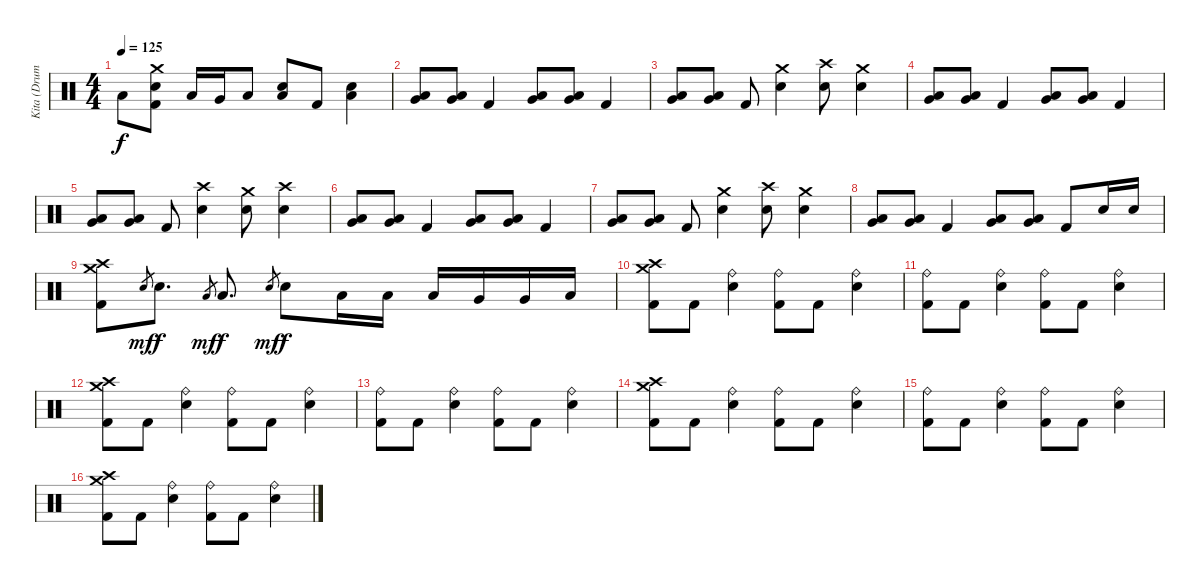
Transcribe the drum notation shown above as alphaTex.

\track ("Kita (Drums)" "Kita (Drum") {instrument percussion}
\staff {score}
\articulation defaults
\ts (4 4)
\tempo 125
\clef neutral
\ks c "Low Floor Tom (hit)".8{dy f}
("Crash medium (hit)" "Electric Snare (hit)" "Kick (hit) 2").8 "Low Floor Tom (hit)".16 "Very Low Tom (hit)".16 "Low Floor Tom (hit)".8 ("Low Floor Tom (hit)" "Electric Snare (hit)").8 "Kick (hit) 2".8 ("Low Floor Tom (hit)" "Electric Snare (hit)").4 |
("Very Low Tom (hit)" "Low Tom (hit)").8{bd 120} ("Very Low Tom (hit)" "Low Tom (hit)").8{bd 120} "Kick (hit) 2".4 ("Low Floor Tom (hit)" "Very Low Tom (hit)").8{bd 120} ("Low Floor Tom (hit)" "Very Low Tom (hit)").8{bd 120} "Kick (hit) 2".4 |
("Very Low Tom (hit)" "Low Tom (hit)").8{bd 120} ("Very Low Tom (hit)" "Low Tom (hit)").8{bd 120} "Kick (hit) 2".8 ("Crash medium (hit)" "Electric Snare (hit)").4 ("Crash high (hit)" "Electric Snare (hit)").8 ("Crash medium (hit)" "Electric Snare (hit)").4 |
("Very Low Tom (hit)" "Low Tom (hit)").8{bd 120} ("Very Low Tom (hit)" "Low Tom (hit)").8{bd 120} "Kick (hit) 2".4 ("Low Floor Tom (hit)" "Very Low Tom (hit)").8{bd 120} ("Low Floor Tom (hit)" "Very Low Tom (hit)").8{bd 120} "Kick (hit) 2".4 |
("Very Low Tom (hit)" "Low Tom (hit)").8{bd 120} ("Very Low Tom (hit)" "Low Tom (hit)").8{bd 120} "Kick (hit) 2".8 ("Crash high (hit)" "Electric Snare (hit)").4 ("Crash medium (hit)" "Electric Snare (hit)").8 ("Crash high (hit)" "Electric Snare (hit)").4 |
("Very Low Tom (hit)" "Low Tom (hit)").8{bd 120} ("Very Low Tom (hit)" "Low Tom (hit)").8{bd 120} "Kick (hit) 2".4 ("Low Floor Tom (hit)" "Very Low Tom (hit)").8{bd 120} ("Low Floor Tom (hit)" "Very Low Tom (hit)").8{bd 120} "Kick (hit) 2".4 |
("Very Low Tom (hit)" "Low Tom (hit)").8{bd 120} ("Very Low Tom (hit)" "Low Tom (hit)").8{bd 120} "Kick (hit) 2".8 ("Crash medium (hit)" "Electric Snare (hit)").4 ("Crash high (hit)" "Electric Snare (hit)").8 ("Crash medium (hit)" "Electric Snare (hit)").4 |
("Very Low Tom (hit)" "Low Tom (hit)").8{bd 120} ("Very Low Tom (hit)" "Low Tom (hit)").8{bd 120} "Kick (hit) 2".4 ("Low Floor Tom (hit)" "Very Low Tom (hit)").8{bd 120} ("Low Floor Tom (hit)" "Very Low Tom (hit)").8{bd 120} "Kick (hit) 2".8 "Electric Snare (hit)".16 "Electric Snare (hit)".16 |
("Crash medium (hit)" "Crash high (hit)" "Kick (hit) 2").8 "Electric Snare (hit)".8{gr dy mf} "Electric Snare (hit)".8{d dy f} "Low Floor Tom (hit)".8{gr dy mf} "Low Floor Tom (hit)".8{d dy f} "Electric Snare (hit)".8{gr dy mf} "Electric Snare (hit)".8{dy f} "Low Tom (hit)".16 "Low Tom (hit)".16 "Low Tom (hit)".16 "Very Low Tom (hit)".16 "Very Low Tom (hit)".16 "Low Floor Tom (hit)".16 |
("Crash medium (hit)" "Crash high (hit)" "Kick (hit) 2").8 "Kick (hit) 2".8 ("Ride (bell)" "Electric Snare (hit)").4 ("Ride (bell)" "Kick (hit) 2").8 "Kick (hit) 2".8 ("Ride (bell)" "Electric Snare (hit)").4 |
("Ride (bell)" "Kick (hit) 2").8 "Kick (hit) 2".8 ("Ride (bell)" "Electric Snare (hit)").4 ("Ride (bell)" "Kick (hit) 2").8 "Kick (hit) 2".8 ("Ride (bell)" "Electric Snare (hit)").4 |
("Crash medium (hit)" "Crash high (hit)" "Kick (hit) 2").8 "Kick (hit) 2".8 ("Ride (bell)" "Electric Snare (hit)").4 ("Ride (bell)" "Kick (hit) 2").8 "Kick (hit) 2".8 ("Ride (bell)" "Electric Snare (hit)").4 |
("Ride (bell)" "Kick (hit) 2").8 "Kick (hit) 2".8 ("Ride (bell)" "Electric Snare (hit)").4 ("Ride (bell)" "Kick (hit) 2").8 "Kick (hit) 2".8 ("Ride (bell)" "Electric Snare (hit)").4 |
("Crash medium (hit)" "Crash high (hit)" "Kick (hit) 2").8 "Kick (hit) 2".8 ("Ride (bell)" "Electric Snare (hit)").4 ("Ride (bell)" "Kick (hit) 2").8 "Kick (hit) 2".8 ("Ride (bell)" "Electric Snare (hit)").4 |
("Ride (bell)" "Kick (hit) 2").8 "Kick (hit) 2".8 ("Ride (bell)" "Electric Snare (hit)").4 ("Ride (bell)" "Kick (hit) 2").8 "Kick (hit) 2".8 ("Ride (bell)" "Electric Snare (hit)").4 |
("Crash medium (hit)" "Crash high (hit)" "Kick (hit) 2").8 "Kick (hit) 2".8 ("Ride (bell)" "Electric Snare (hit)").4 ("Ride (bell)" "Kick (hit) 2").8 "Kick (hit) 2".8 ("Ride (bell)" "Electric Snare (hit)").4
